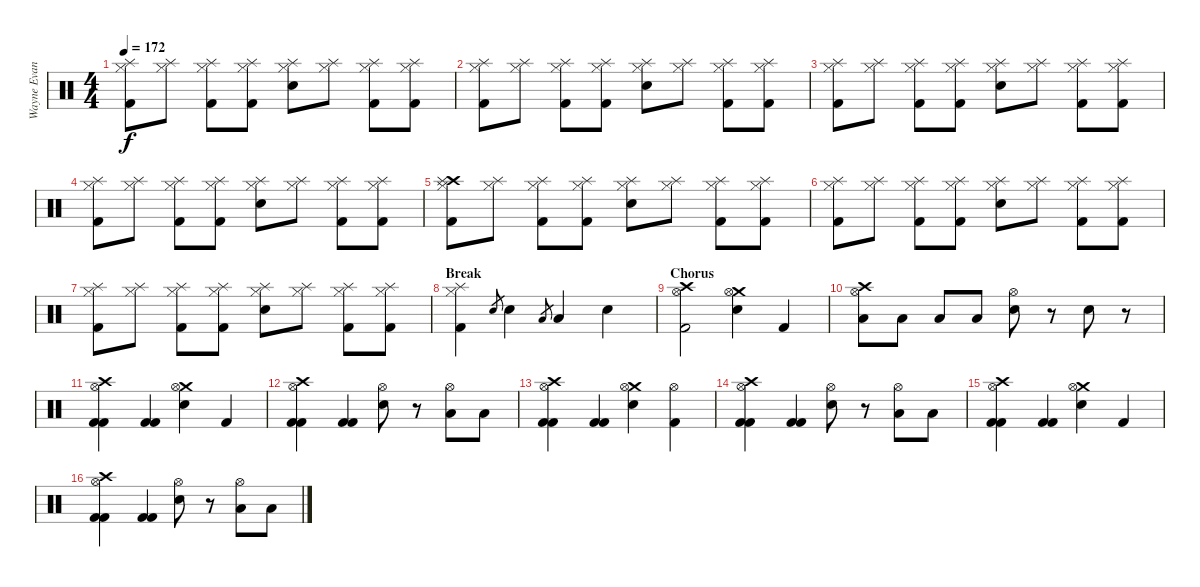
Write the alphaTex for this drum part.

\track ("Wayne Evans  " "Wayne Evan") {instrument percussion}
\staff {score}
\articulation defaults
\ts (4 4)
\tempo 172
\clef neutral
\ks c
("Splash (hit)" "Hi-Hat (closed)" "Kick (hit) 2").8{dy f} ("Splash (hit)" "Hi-Hat (closed)").8 ("Splash (hit)" "Hi-Hat (closed)" "Kick (hit) 2").8 ("Splash (hit)" "Hi-Hat (closed)" "Kick (hit) 2").8 ("Splash (hit)" "Hi-Hat (closed)" "Electric Snare (hit)").8 ("Splash (hit)" "Hi-Hat (closed)").8 ("Splash (hit)" "Hi-Hat (closed)" "Kick (hit) 2").8 ("Splash (hit)" "Hi-Hat (closed)" "Kick (hit) 2").8 |
("Splash (hit)" "Hi-Hat (closed)" "Kick (hit) 2").8 ("Splash (hit)" "Hi-Hat (closed)").8 ("Splash (hit)" "Hi-Hat (closed)" "Kick (hit) 2").8 ("Splash (hit)" "Hi-Hat (closed)" "Kick (hit) 2").8 ("Splash (hit)" "Hi-Hat (closed)" "Electric Snare (hit)").8 ("Splash (hit)" "Hi-Hat (closed)").8 ("Splash (hit)" "Hi-Hat (closed)" "Kick (hit) 2").8 ("Splash (hit)" "Hi-Hat (closed)" "Kick (hit) 2").8 |
("Splash (hit)" "Hi-Hat (closed)" "Kick (hit) 2").8 ("Splash (hit)" "Hi-Hat (closed)").8 ("Splash (hit)" "Hi-Hat (closed)" "Kick (hit) 2").8 ("Splash (hit)" "Hi-Hat (closed)" "Kick (hit) 2").8 ("Splash (hit)" "Hi-Hat (closed)" "Electric Snare (hit)").8 ("Splash (hit)" "Hi-Hat (closed)").8 ("Splash (hit)" "Hi-Hat (closed)" "Kick (hit) 2").8 ("Splash (hit)" "Hi-Hat (closed)" "Kick (hit) 2").8 |
("Splash (hit)" "Hi-Hat (closed)" "Kick (hit) 2").8 ("Splash (hit)" "Hi-Hat (closed)").8 ("Splash (hit)" "Hi-Hat (closed)" "Kick (hit) 2").8 ("Splash (hit)" "Hi-Hat (closed)" "Kick (hit) 2").8 ("Splash (hit)" "Hi-Hat (closed)" "Electric Snare (hit)").8 ("Splash (hit)" "Hi-Hat (closed)").8 ("Splash (hit)" "Hi-Hat (closed)" "Kick (hit) 2").8 ("Splash (hit)" "Hi-Hat (closed)" "Kick (hit) 2").8 |
("Crash high (hit)" "Splash (hit)" "Hi-Hat (closed)" "Kick (hit) 2").8 ("Splash (hit)" "Hi-Hat (closed)").8 ("Splash (hit)" "Hi-Hat (closed)" "Kick (hit) 2").8 ("Splash (hit)" "Hi-Hat (closed)" "Kick (hit) 2").8 ("Splash (hit)" "Hi-Hat (closed)" "Electric Snare (hit)").8 ("Splash (hit)" "Hi-Hat (closed)").8 ("Splash (hit)" "Hi-Hat (closed)" "Kick (hit) 2").8 ("Splash (hit)" "Hi-Hat (closed)" "Kick (hit) 2").8 |
("Splash (hit)" "Hi-Hat (closed)" "Kick (hit) 2").8 ("Splash (hit)" "Hi-Hat (closed)").8 ("Splash (hit)" "Hi-Hat (closed)" "Kick (hit) 2").8 ("Splash (hit)" "Hi-Hat (closed)" "Kick (hit) 2").8 ("Splash (hit)" "Hi-Hat (closed)" "Electric Snare (hit)").8 ("Splash (hit)" "Hi-Hat (closed)").8 ("Splash (hit)" "Hi-Hat (closed)" "Kick (hit) 2").8 ("Splash (hit)" "Hi-Hat (closed)" "Kick (hit) 2").8 |
("Splash (hit)" "Hi-Hat (closed)" "Kick (hit) 2").8 ("Splash (hit)" "Hi-Hat (closed)").8 ("Splash (hit)" "Hi-Hat (closed)" "Kick (hit) 2").8 ("Splash (hit)" "Hi-Hat (closed)" "Kick (hit) 2").8 ("Splash (hit)" "Hi-Hat (closed)" "Electric Snare (hit)").8 ("Splash (hit)" "Hi-Hat (closed)").8 ("Splash (hit)" "Hi-Hat (closed)" "Kick (hit) 2").8 ("Splash (hit)" "Hi-Hat (closed)" "Kick (hit) 2").8 |
\section ("" "Break")
("Splash (hit)" "Hi-Hat (closed)" "Kick (hit) 2").4 "Electric Snare (hit)".8{gr} "Electric Snare (hit)".4 "Low Tom (hit)".8{gr} "Low Tom (hit)".4 "Snare (hit) 2".4 |
\section ("" "Chorus")
("Crash high (hit)" "Hi-Hat (open)" "Kick (hit) 2").2 ("Crash medium (hit)" "Hi-Hat (open)" "Snare (hit) 2").4 "Kick (hit) 2".4 |
("Crash high (hit)" "Hi-Hat (open)" "Low Tom (hit)").8 "Low Tom (hit)".8 "Low Tom (hit)".8 "Low Tom (hit)".8 ("Hi-Hat (open)" "Electric Snare (hit)").8 r.8 "Electric Snare (hit)".8 r.8 |
("Crash high (hit)" "Hi-Hat (open)" "Kick (hit) 2" "Kick (hit) 2").4 ("Kick (hit) 2" "Kick (hit) 2").4 ("Crash medium (hit)" "Hi-Hat (open)" "Snare (hit) 2").4 "Kick (hit) 2".4 |
("Crash high (hit)" "Hi-Hat (open)" "Kick (hit) 2" "Kick (hit) 2").4 ("Kick (hit) 2" "Kick (hit) 2").4 ("Hi-Hat (open)" "Snare (hit) 2").8 r.8 ("Hi-Hat (open)" "Low Tom (hit)").8 "Low Tom (hit)".8 |
("Crash high (hit)" "Hi-Hat (open)" "Kick (hit) 2" "Kick (hit) 2").4 ("Kick (hit) 2" "Kick (hit) 2").4 ("Crash medium (hit)" "Hi-Hat (open)" "Snare (hit) 2").4 ("Hi-Hat (open)" "Kick (hit) 2").4 |
("Crash high (hit)" "Hi-Hat (open)" "Kick (hit) 2" "Kick (hit) 2").4 ("Kick (hit) 2" "Kick (hit) 2").4 ("Hi-Hat (open)" "Snare (hit) 2").8 r.8 ("Hi-Hat (open)" "Low Tom (hit)").8 "Low Tom (hit)".8 |
("Crash high (hit)" "Hi-Hat (open)" "Kick (hit) 2" "Kick (hit) 2").4 ("Kick (hit) 2" "Kick (hit) 2").4 ("Crash medium (hit)" "Hi-Hat (open)" "Snare (hit) 2").4 "Kick (hit) 2".4 |
("Crash high (hit)" "Hi-Hat (open)" "Kick (hit) 2" "Kick (hit) 2").4 ("Kick (hit) 2" "Kick (hit) 2").4 ("Hi-Hat (open)" "Snare (hit) 2").8 r.8 ("Hi-Hat (open)" "Low Tom (hit)").8 "Low Tom (hit)".8
